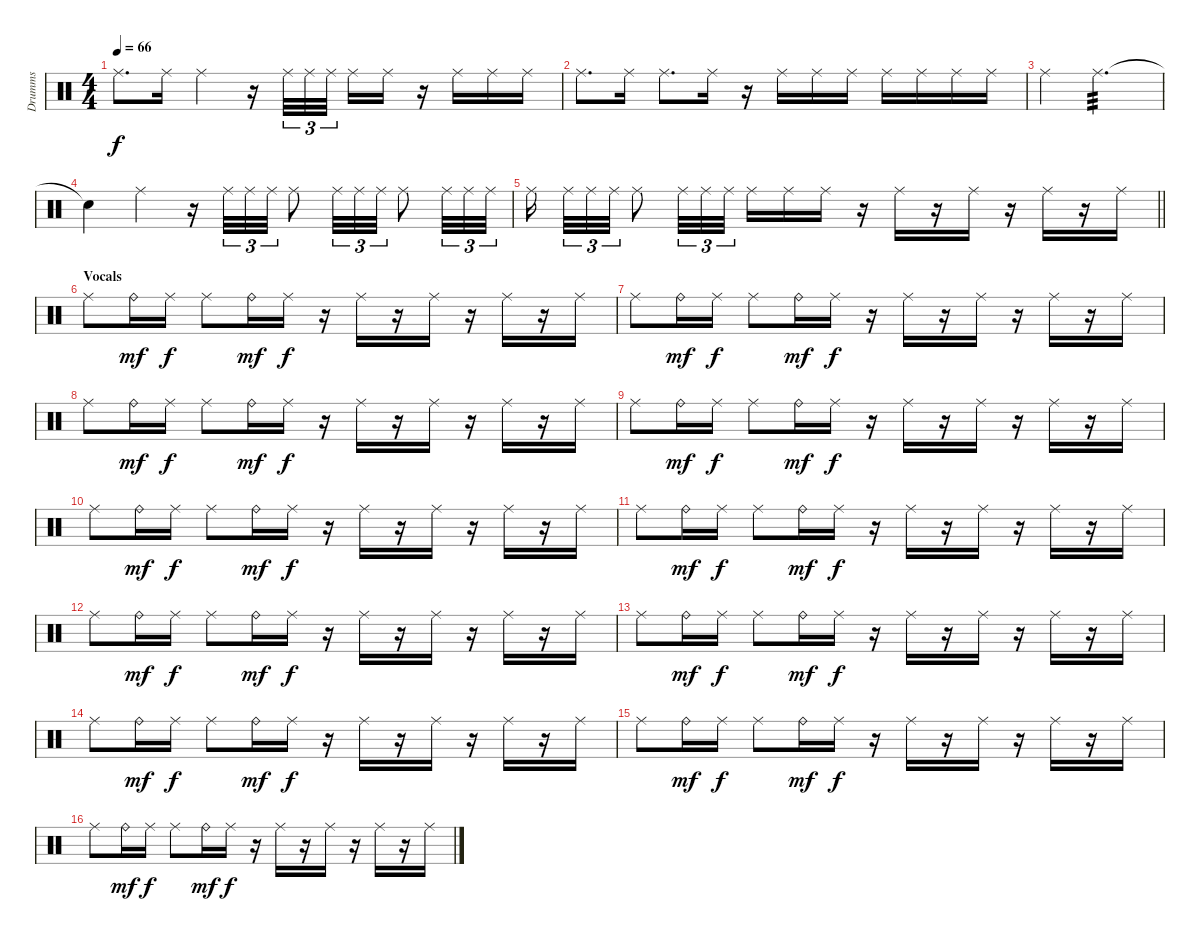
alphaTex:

\track ("Drumms" "Drumms") {instrument percussion}
\staff {score}
\articulation defaults
\ts (4 4)
\tempo 66
\clef neutral
\ks c "Ride (middle)".8{d dy f} "Ride (middle)".16 "Ride (middle)".4
r.16 "Ride (middle)".32{tu (3 2)} "Ride (middle)".32{tu (3 2)} "Ride (middle)".32{tu (3 2)} "Ride (middle)".16 "Ride (middle)".16 r.16 "Ride (middle)".16 "Ride (middle)".16 "Ride (middle)".16 |
"Ride (middle)".8{d} "Ride (middle)".16 "Ride (middle)".8{d} "Ride (middle)".16 r.16 "Ride (middle)".16 "Ride (middle)".16 "Ride (middle)".16 "Ride (middle)".16 "Ride (middle)".16 "Ride (middle)".16 "Ride (middle)".16 |
"Ride (middle)".4 "Ride (middle)".2{d tp 3} |
"Snare (hit)"{t}.4 "Ride (middle)".4 r.16 "Ride (middle)".32{tu (3 2)} "Ride (middle)".32{tu (3 2)} "Ride (middle)".32{tu (3 2)} "Ride (middle)".8 "Ride (middle)".32{tu (3 2)} "Ride (middle)".32{tu (3 2)} "Ride (middle)".32{tu (3 2)} "Ride (middle)".8 "Ride (middle)".32{tu (3 2)} "Ride (middle)".32{tu (3 2)} "Ride (middle)".32{tu (3 2)} |
\barLineRight lightlight "Ride (middle)".16 "Ride (middle)".32{tu (3 2)} "Ride (middle)".32{tu (3 2)} "Ride (middle)".32{tu (3 2)} "Ride (middle)".8 "Ride (middle)".32{tu (3 2)} "Ride (middle)".32{tu (3 2)} "Ride (middle)".32{tu (3 2)} "Ride (middle)".16 "Ride (middle)".16 "Ride (middle)".16
r.16 "Ride (middle)".16 r.16 "Ride (middle)".16 r.16 "Ride (middle)".16 r.16 "Ride (middle)".16 |
\section ("" "Vocals")
"Ride (middle)".8 "Ride (bell)".16{dy mf} "Ride (middle)".16{dy f} "Ride (middle)".8 "Ride (bell)".16{dy mf} "Ride (middle)".16{dy f} r.16 "Ride (middle)".16 r.16 "Ride (middle)".16 r.16 "Ride (middle)".16 r.16 "Ride (middle)".16 |
"Ride (middle)".8 "Ride (bell)".16{dy mf} "Ride (middle)".16{dy f} "Ride (middle)".8 "Ride (bell)".16{dy mf} "Ride (middle)".16{dy f} r.16 "Ride (middle)".16 r.16 "Ride (middle)".16 r.16 "Ride (middle)".16 r.16 "Ride (middle)".16 |
"Ride (middle)".8 "Ride (bell)".16{dy mf} "Ride (middle)".16{dy f} "Ride (middle)".8 "Ride (bell)".16{dy mf} "Ride (middle)".16{dy f} r.16 "Ride (middle)".16 r.16 "Ride (middle)".16 r.16 "Ride (middle)".16 r.16 "Ride (middle)".16 |
"Ride (middle)".8 "Ride (bell)".16{dy mf} "Ride (middle)".16{dy f} "Ride (middle)".8 "Ride (bell)".16{dy mf} "Ride (middle)".16{dy f} r.16 "Ride (middle)".16 r.16 "Ride (middle)".16 r.16 "Ride (middle)".16 r.16 "Ride (middle)".16 |
"Ride (middle)".8 "Ride (bell)".16{dy mf} "Ride (middle)".16{dy f} "Ride (middle)".8 "Ride (bell)".16{dy mf} "Ride (middle)".16{dy f} r.16 "Ride (middle)".16 r.16 "Ride (middle)".16 r.16 "Ride (middle)".16 r.16 "Ride (middle)".16 |
"Ride (middle)".8 "Ride (bell)".16{dy mf} "Ride (middle)".16{dy f} "Ride (middle)".8 "Ride (bell)".16{dy mf} "Ride (middle)".16{dy f} r.16 "Ride (middle)".16 r.16 "Ride (middle)".16 r.16 "Ride (middle)".16 r.16 "Ride (middle)".16 |
"Ride (middle)".8 "Ride (bell)".16{dy mf} "Ride (middle)".16{dy f} "Ride (middle)".8 "Ride (bell)".16{dy mf} "Ride (middle)".16{dy f} r.16 "Ride (middle)".16 r.16 "Ride (middle)".16 r.16 "Ride (middle)".16 r.16 "Ride (middle)".16 |
"Ride (middle)".8 "Ride (bell)".16{dy mf} "Ride (middle)".16{dy f} "Ride (middle)".8 "Ride (bell)".16{dy mf} "Ride (middle)".16{dy f} r.16 "Ride (middle)".16 r.16 "Ride (middle)".16 r.16 "Ride (middle)".16 r.16 "Ride (middle)".16 |
"Ride (middle)".8 "Ride (bell)".16{dy mf} "Ride (middle)".16{dy f} "Ride (middle)".8 "Ride (bell)".16{dy mf} "Ride (middle)".16{dy f} r.16 "Ride (middle)".16 r.16 "Ride (middle)".16 r.16 "Ride (middle)".16 r.16 "Ride (middle)".16 |
"Ride (middle)".8 "Ride (bell)".16{dy mf} "Ride (middle)".16{dy f} "Ride (middle)".8 "Ride (bell)".16{dy mf} "Ride (middle)".16{dy f} r.16 "Ride (middle)".16 r.16 "Ride (middle)".16 r.16 "Ride (middle)".16 r.16 "Ride (middle)".16 |
"Ride (middle)".8 "Ride (bell)".16{dy mf} "Ride (middle)".16{dy f} "Ride (middle)".8 "Ride (bell)".16{dy mf} "Ride (middle)".16{dy f} r.16 "Ride (middle)".16 r.16 "Ride (middle)".16 r.16 "Ride (middle)".16 r.16 "Ride (middle)".16
